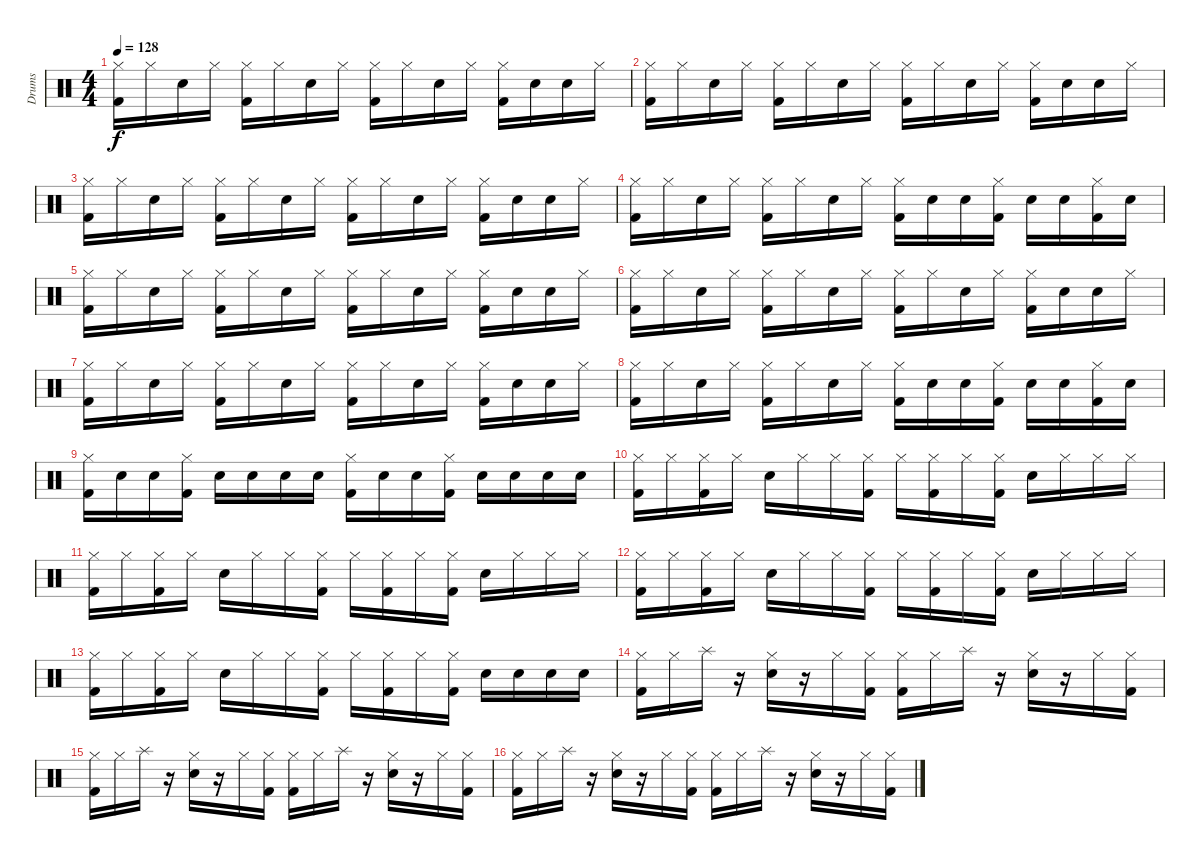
\track ("Drums" "Drums") {instrument percussion}
\staff {score}
\articulation defaults
\ts (4 4)
\tempo 128
\clef neutral
\ks c
("Hi-Hat (closed)" "Kick (hit) 2").16{dy f} "Hi-Hat (closed)".16 "Snare (hit) 2".16 "Hi-Hat (closed)".16 ("Hi-Hat (closed)" "Kick (hit) 2").16 "Hi-Hat (closed)".16 "Snare (hit) 2".16 "Hi-Hat (closed)".16 ("Hi-Hat (closed)" "Kick (hit) 2").16 "Hi-Hat (closed)".16 "Snare (hit) 2".16 "Hi-Hat (closed)".16 ("Hi-Hat (closed)" "Kick (hit) 2").16 "Snare (hit) 2".16 "Snare (hit) 2".16 "Hi-Hat (closed)".16 |
("Hi-Hat (closed)" "Kick (hit) 2").16 "Hi-Hat (closed)".16 "Snare (hit) 2".16 "Hi-Hat (closed)".16 ("Hi-Hat (closed)" "Kick (hit) 2").16 "Hi-Hat (closed)".16 "Snare (hit) 2".16 "Hi-Hat (closed)".16 ("Hi-Hat (closed)" "Kick (hit) 2").16 "Hi-Hat (closed)".16 "Snare (hit) 2".16 "Hi-Hat (closed)".16 ("Hi-Hat (closed)" "Kick (hit) 2").16 "Snare (hit) 2".16 "Snare (hit) 2".16 "Hi-Hat (closed)".16 |
("Hi-Hat (closed)" "Kick (hit) 2").16 "Hi-Hat (closed)".16 "Snare (hit) 2".16 "Hi-Hat (closed)".16 ("Hi-Hat (closed)" "Kick (hit) 2").16 "Hi-Hat (closed)".16 "Snare (hit) 2".16 "Hi-Hat (closed)".16 ("Hi-Hat (closed)" "Kick (hit) 2").16 "Hi-Hat (closed)".16 "Snare (hit) 2".16 "Hi-Hat (closed)".16 ("Hi-Hat (closed)" "Kick (hit) 2").16 "Snare (hit) 2".16 "Snare (hit) 2".16 "Hi-Hat (closed)".16 |
("Hi-Hat (closed)" "Kick (hit) 2").16 "Hi-Hat (closed)".16 "Snare (hit) 2".16 "Hi-Hat (closed)".16 ("Hi-Hat (closed)" "Kick (hit) 2").16 "Hi-Hat (closed)".16 "Snare (hit) 2".16 "Hi-Hat (closed)".16 ("Hi-Hat (closed)" "Kick (hit) 2").16 "Snare (hit) 2".16 "Snare (hit) 2".16 ("Hi-Hat (closed)" "Kick (hit) 2").16 "Snare (hit) 2".16 "Snare (hit) 2".16 ("Hi-Hat (closed)" "Kick (hit) 2").16 "Snare (hit) 2".16 |
("Hi-Hat (closed)" "Kick (hit) 2").16 "Hi-Hat (closed)".16 "Snare (hit) 2".16 "Hi-Hat (closed)".16 ("Hi-Hat (closed)" "Kick (hit) 2").16 "Hi-Hat (closed)".16 "Snare (hit) 2".16 "Hi-Hat (closed)".16 ("Hi-Hat (closed)" "Kick (hit) 2").16 "Hi-Hat (closed)".16 "Snare (hit) 2".16 "Hi-Hat (closed)".16 ("Hi-Hat (closed)" "Kick (hit) 2").16 "Snare (hit) 2".16 "Snare (hit) 2".16 "Hi-Hat (closed)".16 |
("Hi-Hat (closed)" "Kick (hit) 2").16 "Hi-Hat (closed)".16 "Snare (hit) 2".16 "Hi-Hat (closed)".16 ("Hi-Hat (closed)" "Kick (hit) 2").16 "Hi-Hat (closed)".16 "Snare (hit) 2".16 "Hi-Hat (closed)".16 ("Hi-Hat (closed)" "Kick (hit) 2").16 "Hi-Hat (closed)".16 "Snare (hit) 2".16 "Hi-Hat (closed)".16 ("Hi-Hat (closed)" "Kick (hit) 2").16 "Snare (hit) 2".16 "Snare (hit) 2".16 "Hi-Hat (closed)".16 |
("Hi-Hat (closed)" "Kick (hit) 2").16 "Hi-Hat (closed)".16 "Snare (hit) 2".16 "Hi-Hat (closed)".16 ("Hi-Hat (closed)" "Kick (hit) 2").16 "Hi-Hat (closed)".16 "Snare (hit) 2".16 "Hi-Hat (closed)".16 ("Hi-Hat (closed)" "Kick (hit) 2").16 "Hi-Hat (closed)".16 "Snare (hit) 2".16 "Hi-Hat (closed)".16 ("Hi-Hat (closed)" "Kick (hit) 2").16 "Snare (hit) 2".16 "Snare (hit) 2".16 "Hi-Hat (closed)".16 |
("Hi-Hat (closed)" "Kick (hit) 2").16 "Hi-Hat (closed)".16 "Snare (hit) 2".16 "Hi-Hat (closed)".16 ("Hi-Hat (closed)" "Kick (hit) 2").16 "Hi-Hat (closed)".16 "Snare (hit) 2".16 "Hi-Hat (closed)".16 ("Hi-Hat (closed)" "Kick (hit) 2").16 "Snare (hit) 2".16 "Snare (hit) 2".16 ("Hi-Hat (closed)" "Kick (hit) 2").16 "Snare (hit) 2".16 "Snare (hit) 2".16 ("Hi-Hat (closed)" "Kick (hit) 2").16 "Snare (hit) 2".16 |
("Hi-Hat (closed)" "Kick (hit) 2").16 "Snare (hit) 2".16 "Snare (hit) 2".16 ("Hi-Hat (closed)" "Kick (hit) 2").16 "Snare (hit) 2".16 "Snare (hit) 2".16 "Snare (hit) 2".16 "Snare (hit) 2".16 ("Hi-Hat (closed)" "Kick (hit) 2").16 "Snare (hit) 2".16 "Snare (hit) 2".16 ("Hi-Hat (closed)" "Kick (hit) 2").16 "Snare (hit) 2".16 "Snare (hit) 2".16 "Snare (hit) 2".16 "Snare (hit) 2".16 |
("Hi-Hat (closed)" "Kick (hit) 2").16 "Hi-Hat (closed)".16 ("Hi-Hat (closed)" "Kick (hit) 2").16 "Hi-Hat (closed)".16 "Snare (hit) 2".16 "Hi-Hat (closed)".16 "Hi-Hat (closed)".16 ("Hi-Hat (closed)" "Kick (hit) 2").16 "Hi-Hat (closed)".16 ("Hi-Hat (closed)" "Kick (hit) 2").16 "Hi-Hat (closed)".16 ("Hi-Hat (closed)" "Kick (hit) 2").16 "Snare (hit) 2".16 "Hi-Hat (closed)".16 "Hi-Hat (closed)".16 "Hi-Hat (closed)".16 |
("Hi-Hat (closed)" "Kick (hit) 2").16 "Hi-Hat (closed)".16 ("Hi-Hat (closed)" "Kick (hit) 2").16 "Hi-Hat (closed)".16 "Snare (hit) 2".16 "Hi-Hat (closed)".16 "Hi-Hat (closed)".16 ("Hi-Hat (closed)" "Kick (hit) 2").16 "Hi-Hat (closed)".16 ("Hi-Hat (closed)" "Kick (hit) 2").16 "Hi-Hat (closed)".16 ("Hi-Hat (closed)" "Kick (hit) 2").16 "Snare (hit) 2".16 "Hi-Hat (closed)".16 "Hi-Hat (closed)".16 "Hi-Hat (closed)".16 |
("Hi-Hat (closed)" "Kick (hit) 2").16 "Hi-Hat (closed)".16 ("Hi-Hat (closed)" "Kick (hit) 2").16 "Hi-Hat (closed)".16 "Snare (hit) 2".16 "Hi-Hat (closed)".16 "Hi-Hat (closed)".16 ("Hi-Hat (closed)" "Kick (hit) 2").16 "Hi-Hat (closed)".16 ("Hi-Hat (closed)" "Kick (hit) 2").16 "Hi-Hat (closed)".16 ("Hi-Hat (closed)" "Kick (hit) 2").16 "Snare (hit) 2".16 "Hi-Hat (closed)".16 "Hi-Hat (closed)".16 "Hi-Hat (closed)".16 |
("Hi-Hat (closed)" "Kick (hit) 2").16 "Hi-Hat (closed)".16 ("Hi-Hat (closed)" "Kick (hit) 2").16 "Hi-Hat (closed)".16 "Snare (hit) 2".16 "Hi-Hat (closed)".16 "Hi-Hat (closed)".16 ("Hi-Hat (closed)" "Kick (hit) 2").16 "Hi-Hat (closed)".16 ("Hi-Hat (closed)" "Kick (hit) 2").16 "Hi-Hat (closed)".16 ("Hi-Hat (closed)" "Kick (hit) 2").16 "Snare (hit) 2".16 "Snare (hit) 2".16 "Snare (hit) 2".16 "Snare (hit) 2".16 |
("Hi-Hat (closed)" "Kick (hit) 2").16 "Hi-Hat (closed)".16 "Splash (hit)".16 r.16 ("Hi-Hat (closed)" "Snare (hit) 2").16 r.16 "Hi-Hat (closed)".16 ("Hi-Hat (closed)" "Kick (hit) 2").16 ("Hi-Hat (closed)" "Kick (hit) 2").16 "Hi-Hat (closed)".16 "Splash (hit)".16 r.16 ("Hi-Hat (closed)" "Snare (hit) 2").16 r.16 "Hi-Hat (closed)".16 ("Hi-Hat (closed)" "Kick (hit) 2").16 |
("Hi-Hat (closed)" "Kick (hit) 2").16 "Hi-Hat (closed)".16 "Splash (hit)".16 r.16 ("Hi-Hat (closed)" "Snare (hit) 2").16 r.16 "Hi-Hat (closed)".16 ("Hi-Hat (closed)" "Kick (hit) 2").16 ("Hi-Hat (closed)" "Kick (hit) 2").16 "Hi-Hat (closed)".16 "Splash (hit)".16 r.16 ("Hi-Hat (closed)" "Snare (hit) 2").16 r.16 "Hi-Hat (closed)".16 ("Hi-Hat (closed)" "Kick (hit) 2").16 |
("Hi-Hat (closed)" "Kick (hit) 2").16 "Hi-Hat (closed)".16 "Splash (hit)".16 r.16 ("Hi-Hat (closed)" "Snare (hit) 2").16 r.16 "Hi-Hat (closed)".16 ("Hi-Hat (closed)" "Kick (hit) 2").16 ("Hi-Hat (closed)" "Kick (hit) 2").16 "Hi-Hat (closed)".16 "Splash (hit)".16 r.16 ("Hi-Hat (closed)" "Snare (hit) 2").16 r.16 "Hi-Hat (closed)".16 ("Hi-Hat (closed)" "Kick (hit) 2").16
